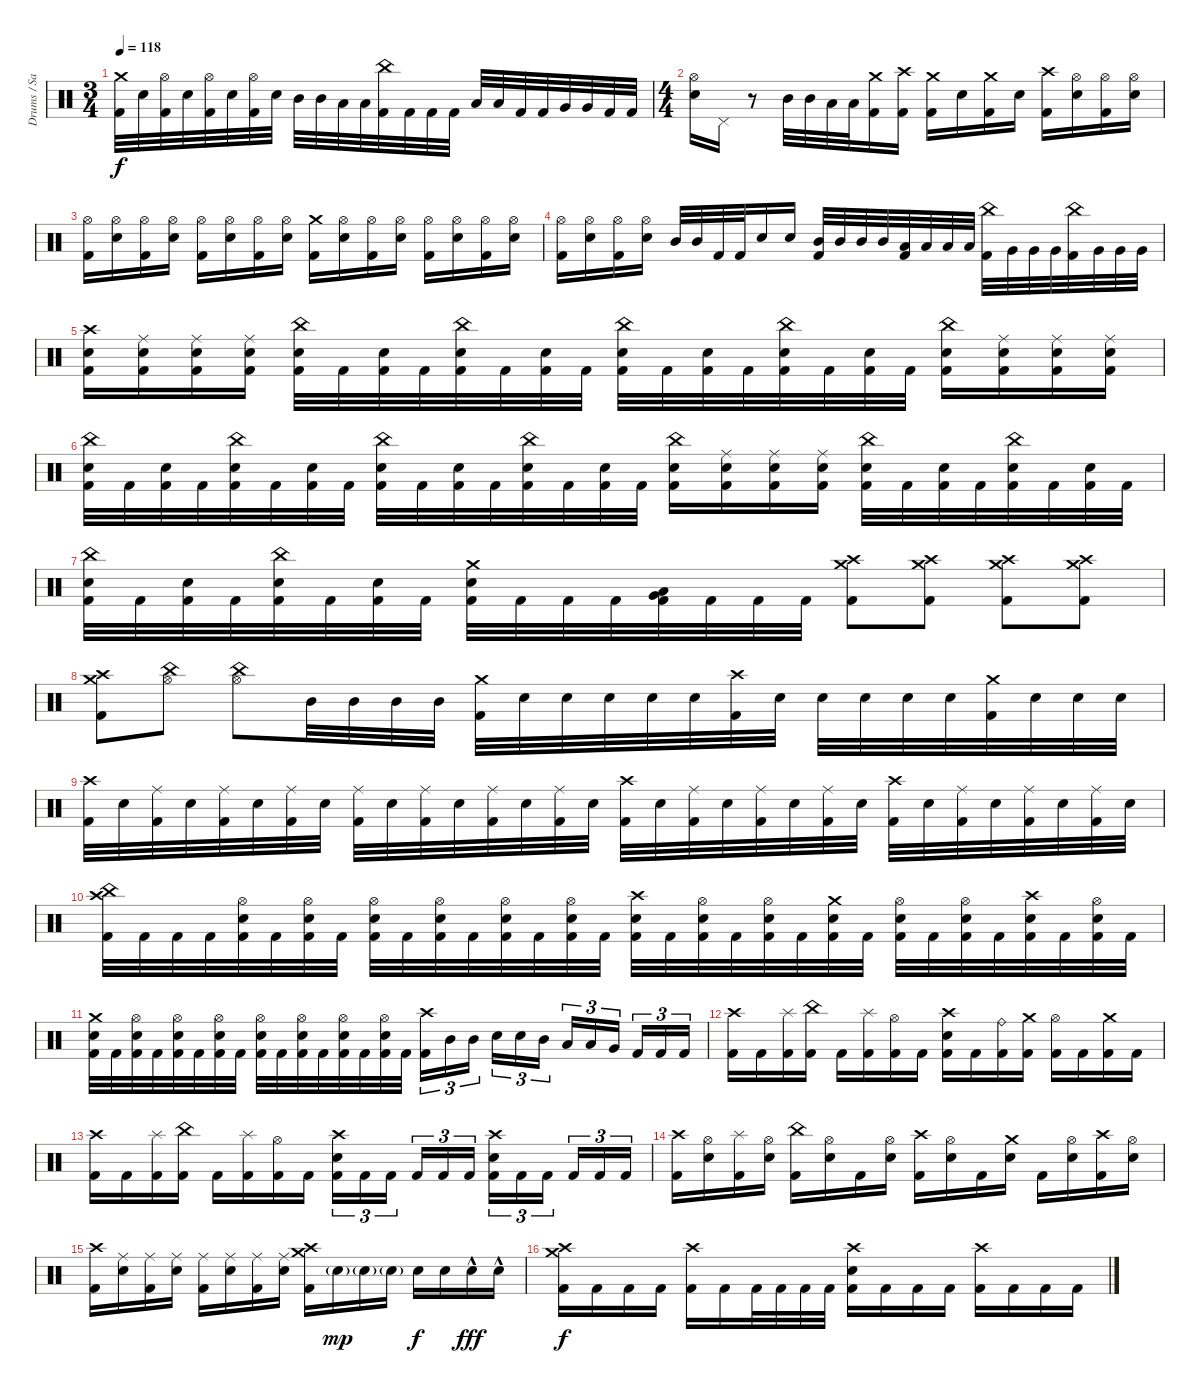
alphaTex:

\track ("Drums / Sasha" "Drums / Sa") {instrument percussion}
\staff {score}
\articulation defaults
\ts (3 4)
\tempo 118
\clef neutral
\ks c
("Crash medium (hit)" "Kick (hit) 2").32{dy f} "Electric Snare (hit)".32 ("Hi-Hat (open)" "Kick (hit) 2").32 "Electric Snare (hit)".32 ("Hi-Hat (open)" "Kick (hit) 2").32 "Electric Snare (hit)".32 ("Hi-Hat (open)" "Kick (hit) 2").32 "Electric Snare (hit)".32 "Mid Tom (hit)".32 "Mid Tom (hit)".32 "Low Tom (hit)".32 "Low Tom (hit)".32 ("China (hit)" "Kick (hit) 2").32 "Kick (hit) 2".32 "Kick (hit) 2".32 "Kick (hit) 2".32 "Low Tom (hit)".32 "Low Tom (hit)".32 "Kick (hit) 2".32 "Kick (hit) 2".32 "Very Low Tom (hit)".32 "Very Low Tom (hit)".32 "Kick (hit) 2".32 "Kick (hit) 2".32 |
\ts (4 4)
("Hi-Hat (open)" "Electric Snare (hit)").16 "Pedal Hi-Hat (hit)".16 r.8 "Mid Tom (hit)".32 "Mid Tom (hit)".32 "Low Tom (hit)".32 "Low Tom (hit)".32 ("Crash medium (hit)" "Kick (hit) 2").16 ("Crash high (hit)" "Kick (hit) 2").16 ("Crash medium (hit)" "Kick (hit) 2").16 "Electric Snare (hit)".16 ("Crash medium (hit)" "Kick (hit) 2").16 "Electric Snare (hit)".16 ("Crash high (hit)" "Kick (hit) 2").16 ("Hi-Hat (open)" "Electric Snare (hit)").16 ("Hi-Hat (open)" "Kick (hit) 2").16 ("Hi-Hat (open)" "Electric Snare (hit)").16 |
("Hi-Hat (open)" "Kick (hit) 2").16 ("Hi-Hat (open)" "Electric Snare (hit)").16 ("Hi-Hat (open)" "Kick (hit) 2").16 ("Hi-Hat (open)" "Electric Snare (hit)").16 ("Hi-Hat (open)" "Kick (hit) 2").16 ("Hi-Hat (open)" "Electric Snare (hit)").16 ("Hi-Hat (open)" "Kick (hit) 2").16 ("Hi-Hat (open)" "Electric Snare (hit)").16 ("Crash medium (hit)" "Kick (hit) 2").16 ("Hi-Hat (open)" "Electric Snare (hit)").16 ("Hi-Hat (open)" "Kick (hit) 2").16 ("Hi-Hat (open)" "Electric Snare (hit)").16 ("Hi-Hat (open)" "Kick (hit) 2").16 ("Hi-Hat (open)" "Electric Snare (hit)").16 ("Hi-Hat (open)" "Kick (hit) 2").16 ("Hi-Hat (open)" "Electric Snare (hit)").16 |
("Hi-Hat (open)" "Kick (hit) 2").16 ("Hi-Hat (open)" "Electric Snare (hit)").16 ("Hi-Hat (open)" "Kick (hit) 2").16 ("Hi-Hat (open)" "Electric Snare (hit)").16 "Mid Tom (hit)".32 "Mid Tom (hit)".32 "Kick (hit) 2".32 "Kick (hit) 2".32 "Electric Snare (hit)".16 "Electric Snare (hit)".16 ("Mid Tom (hit)" "Kick (hit) 2").32 "Mid Tom (hit)".32 "Mid Tom (hit)".32 "Mid Tom (hit)".32 ("Low Tom (hit)" "Kick (hit) 2").32 "Low Tom (hit)".32 "Low Tom (hit)".32 "Low Tom (hit)".32 ("China (hit)" "Kick (hit) 2").32 "Very Low Tom (hit)".32 "Very Low Tom (hit)".32 "Very Low Tom (hit)".32 ("China (hit)" "Kick (hit) 2").32 "Very Low Tom (hit)".32 "Very Low Tom (hit)".32 "Very Low Tom (hit)".32 |
("Crash high (hit)" "Electric Snare (hit)" "Kick (hit) 2").16 ("Ride (middle)" "Electric Snare (hit)" "Kick (hit) 2").16 ("Ride (middle)" "Electric Snare (hit)" "Kick (hit) 2").16 ("Ride (middle)" "Electric Snare (hit)" "Kick (hit) 2").16 ("China (hit)" "Electric Snare (hit)" "Kick (hit) 2").32 "Kick (hit) 2".32 ("Electric Snare (hit)" "Kick (hit) 2").32 "Kick (hit) 2".32 ("China (hit)" "Electric Snare (hit)" "Kick (hit) 2").32 "Kick (hit) 2".32 ("Electric Snare (hit)" "Kick (hit) 2").32 "Kick (hit) 2".32 ("China (hit)" "Electric Snare (hit)" "Kick (hit) 2").32 "Kick (hit) 2".32 ("Electric Snare (hit)" "Kick (hit) 2").32 "Kick (hit) 2".32 ("China (hit)" "Electric Snare (hit)" "Kick (hit) 2").32 "Kick (hit) 2".32 ("Electric Snare (hit)" "Kick (hit) 2").32 "Kick (hit) 2".32 ("China (hit)" "Electric Snare (hit)" "Kick (hit) 2").16 ("Ride (middle)" "Electric Snare (hit)" "Kick (hit) 2").16 ("Ride (middle)" "Electric Snare (hit)" "Kick (hit) 2").16 ("Ride (middle)" "Electric Snare (hit)" "Kick (hit) 2").16 |
("China (hit)" "Electric Snare (hit)" "Kick (hit) 2").32 "Kick (hit) 2".32 ("Electric Snare (hit)" "Kick (hit) 2").32 "Kick (hit) 2".32 ("China (hit)" "Electric Snare (hit)" "Kick (hit) 2").32 "Kick (hit) 2".32 ("Electric Snare (hit)" "Kick (hit) 2").32 "Kick (hit) 2".32 ("China (hit)" "Electric Snare (hit)" "Kick (hit) 2").32 "Kick (hit) 2".32 ("Electric Snare (hit)" "Kick (hit) 2").32 "Kick (hit) 2".32 ("China (hit)" "Electric Snare (hit)" "Kick (hit) 2").32 "Kick (hit) 2".32 ("Electric Snare (hit)" "Kick (hit) 2").32 "Kick (hit) 2".32 ("China (hit)" "Electric Snare (hit)" "Kick (hit) 2").16 ("Ride (middle)" "Electric Snare (hit)" "Kick (hit) 2").16 ("Ride (middle)" "Electric Snare (hit)" "Kick (hit) 2").16 ("Ride (middle)" "Electric Snare (hit)" "Kick (hit) 2").16 ("China (hit)" "Electric Snare (hit)" "Kick (hit) 2").32 "Kick (hit) 2".32 ("Electric Snare (hit)" "Kick (hit) 2").32 "Kick (hit) 2".32 ("China (hit)" "Electric Snare (hit)" "Kick (hit) 2").32 "Kick (hit) 2".32 ("Electric Snare (hit)" "Kick (hit) 2").32 "Kick (hit) 2".32 |
("China (hit)" "Electric Snare (hit)" "Kick (hit) 2").32 "Kick (hit) 2".32 ("Electric Snare (hit)" "Kick (hit) 2").32 "Kick (hit) 2".32 ("China (hit)" "Electric Snare (hit)" "Kick (hit) 2").32 "Kick (hit) 2".32 ("Electric Snare (hit)" "Kick (hit) 2").32 "Kick (hit) 2".32 ("Crash medium (hit)" "Electric Snare (hit)" "Kick (hit) 2").32 "Kick (hit) 2".32 "Kick (hit) 2".32 "Kick (hit) 2".32 ("Low Tom (hit)" "Very Low Tom (hit)" "Kick (hit) 2").32 "Kick (hit) 2".32 "Kick (hit) 2".32 "Kick (hit) 2".32 ("Crash high (hit)" "Crash medium (hit)" "Kick (hit) 2").8 ("Crash high (hit)" "Crash medium (hit)" "Kick (hit) 2").8 ("Crash high (hit)" "Crash medium (hit)" "Kick (hit) 2").8 ("Crash high (hit)" "Crash medium (hit)" "Kick (hit) 2").8 |
("Crash high (hit)" "Crash medium (hit)" "Kick (hit) 2").8 ("China (hit)" "Hi-Hat (open)").8 ("China (hit)" "Hi-Hat (open)").8 "Mid Tom (hit)".32 "Mid Tom (hit)".32 "Mid Tom (hit)".32 "Mid Tom (hit)".32 ("Crash medium (hit)" "Kick (hit) 2").32 "Electric Snare (hit)".32 "Electric Snare (hit)".32 "Electric Snare (hit)".32 "Electric Snare (hit)".32 "Electric Snare (hit)".32 ("Crash high (hit)" "Kick (hit) 2").32 "Electric Snare (hit)".32 "Electric Snare (hit)".32 "Electric Snare (hit)".32 "Electric Snare (hit)".32 "Electric Snare (hit)".32 ("Crash medium (hit)" "Kick (hit) 2").32 "Electric Snare (hit)".32 "Electric Snare (hit)".32 "Electric Snare (hit)".32 |
("Crash high (hit)" "Kick (hit) 2").32 "Electric Snare (hit)".32 ("Ride (middle)" "Kick (hit) 2").32 "Electric Snare (hit)".32 ("Ride (middle)" "Kick (hit) 2").32 "Electric Snare (hit)".32 ("Ride (middle)" "Kick (hit) 2").32 "Electric Snare (hit)".32 ("Ride (middle)" "Kick (hit) 2").32 "Electric Snare (hit)".32 ("Ride (middle)" "Kick (hit) 2").32 "Electric Snare (hit)".32 ("Ride (middle)" "Kick (hit) 2").32 "Electric Snare (hit)".32 ("Ride (middle)" "Kick (hit) 2").32 "Electric Snare (hit)".32 ("Crash high (hit)" "Kick (hit) 2").32 "Electric Snare (hit)".32 ("Ride (middle)" "Kick (hit) 2").32 "Electric Snare (hit)".32 ("Ride (middle)" "Kick (hit) 2").32 "Electric Snare (hit)".32 ("Ride (middle)" "Kick (hit) 2").32 "Electric Snare (hit)".32 ("Crash high (hit)" "Kick (hit) 2").32 "Electric Snare (hit)".32 ("Ride (middle)" "Kick (hit) 2").32 "Electric Snare (hit)".32 ("Ride (middle)" "Kick (hit) 2").32 "Electric Snare (hit)".32 ("Ride (middle)" "Kick (hit) 2").32 "Electric Snare (hit)".32 |
("Crash high (hit)" "China (hit)" "Kick (hit) 2").32 "Kick (hit) 2".32 "Kick (hit) 2".32 "Kick (hit) 2".32 ("Hi-Hat (open)" "Electric Snare (hit)" "Kick (hit) 2").32 "Kick (hit) 2".32 ("Hi-Hat (open)" "Electric Snare (hit)" "Kick (hit) 2").32 "Kick (hit) 2".32 ("Hi-Hat (open)" "Electric Snare (hit)" "Kick (hit) 2").32 "Kick (hit) 2".32 ("Hi-Hat (open)" "Electric Snare (hit)" "Kick (hit) 2").32 "Kick (hit) 2".32 ("Hi-Hat (open)" "Electric Snare (hit)" "Kick (hit) 2").32 "Kick (hit) 2".32 ("Hi-Hat (open)" "Electric Snare (hit)" "Kick (hit) 2").32 "Kick (hit) 2".32 ("Crash high (hit)" "Electric Snare (hit)" "Kick (hit) 2").32 "Kick (hit) 2".32 ("Hi-Hat (open)" "Electric Snare (hit)" "Kick (hit) 2").32 "Kick (hit) 2".32 ("Hi-Hat (open)" "Electric Snare (hit)" "Kick (hit) 2").32 "Kick (hit) 2".32 ("Crash medium (hit)" "Electric Snare (hit)" "Kick (hit) 2").32 "Kick (hit) 2".32 ("Hi-Hat (open)" "Electric Snare (hit)" "Kick (hit) 2").32 "Kick (hit) 2".32 ("Hi-Hat (open)" "Electric Snare (hit)" "Kick (hit) 2").32 "Kick (hit) 2".32 ("Crash high (hit)" "Electric Snare (hit)" "Kick (hit) 2").32 "Kick (hit) 2".32 ("Hi-Hat (open)" "Electric Snare (hit)" "Kick (hit) 2").32 "Kick (hit) 2".32 |
("Crash medium (hit)" "Electric Snare (hit)" "Kick (hit) 2").32 "Kick (hit) 2".32 ("Hi-Hat (open)" "Electric Snare (hit)" "Kick (hit) 2").32 "Kick (hit) 2".32 ("Hi-Hat (open)" "Electric Snare (hit)" "Kick (hit) 2").32 "Kick (hit) 2".32 ("Hi-Hat (open)" "Electric Snare (hit)" "Kick (hit) 2").32 "Kick (hit) 2".32 ("Hi-Hat (open)" "Electric Snare (hit)" "Kick (hit) 2").32 "Kick (hit) 2".32 ("Hi-Hat (open)" "Electric Snare (hit)" "Kick (hit) 2").32 "Kick (hit) 2".32 ("Hi-Hat (open)" "Electric Snare (hit)" "Kick (hit) 2").32 "Kick (hit) 2".32 ("Hi-Hat (open)" "Electric Snare (hit)" "Kick (hit) 2").32 "Kick (hit) 2".32 ("Crash high (hit)" "Kick (hit) 2").16{tu (3 2)} "Mid Tom (hit)".16{tu (3 2)} "Mid Tom (hit)".16{tu (3 2) beam splitsecondary} "Electric Snare (hit)".16{tu (3 2)} "Electric Snare (hit)".16{tu (3 2)} "Mid Tom (hit)".16{tu (3 2)} "Low Tom (hit)".16{tu (3 2)} "Low Tom (hit)".16{tu (3 2)} "Very Low Tom (hit)".16{tu (3 2) beam splitsecondary} "Kick (hit) 2".16{tu (3 2)} "Kick (hit) 2".16{tu (3 2)} "Kick (hit) 2".16{tu (3 2)} |
("Crash high (hit)" "Kick (hit) 2").16 "Kick (hit) 2".16 ("Splash (hit)" "Kick (hit) 2").16 ("China (hit)" "Kick (hit) 2").16 "Kick (hit) 2".16 ("Splash (hit)" "Kick (hit) 2").16 ("Hi-Hat (open)" "Kick (hit) 2").16 "Kick (hit) 2".16 ("Crash high (hit)" "Electric Snare (hit)" "Kick (hit) 2").16 "Kick (hit) 2".16 ("Ride (bell)" "Kick (hit) 2").16 ("Crash medium (hit)" "Kick (hit) 2").16 ("Hi-Hat (open)" "Kick (hit) 2").16 "Kick (hit) 2".16 ("Crash medium (hit)" "Kick (hit) 2").16 "Kick (hit) 2".16 |
("Crash high (hit)" "Kick (hit) 2").16 "Kick (hit) 2".16 ("Splash (hit)" "Kick (hit) 2").16 ("China (hit)" "Kick (hit) 2").16 "Kick (hit) 2".16 ("Splash (hit)" "Kick (hit) 2").16 ("Hi-Hat (open)" "Kick (hit) 2").16 "Kick (hit) 2".16 ("Crash high (hit)" "Electric Snare (hit)" "Kick (hit) 2").16{tu (3 2)} "Kick (hit) 2".16{tu (3 2)} "Kick (hit) 2".16{tu (3 2) beam splitsecondary} "Kick (hit) 2".16{tu (3 2)} "Kick (hit) 2".16{tu (3 2)} "Kick (hit) 2".16{tu (3 2)} ("Crash high (hit)" "Electric Snare (hit)" "Kick (hit) 2").16{tu (3 2)} "Kick (hit) 2".16{tu (3 2)} "Kick (hit) 2".16{tu (3 2) beam splitsecondary} "Kick (hit) 2".16{tu (3 2)} "Kick (hit) 2".16{tu (3 2)} "Kick (hit) 2".16{tu (3 2)} |
("Crash high (hit)" "Kick (hit) 2").16 ("Hi-Hat (open)" "Electric Snare (hit)").16 ("Splash (hit)" "Kick (hit) 2").16 ("Hi-Hat (open)" "Electric Snare (hit)").16 ("China (hit)" "Kick (hit) 2").16 ("Hi-Hat (open)" "Electric Snare (hit)").16 "Kick (hit) 2".16 ("Hi-Hat (open)" "Electric Snare (hit)").16 ("Crash high (hit)" "Kick (hit) 2").16 ("Hi-Hat (open)" "Electric Snare (hit)").16 "Kick (hit) 2".16 ("Crash medium (hit)" "Electric Snare (hit)").16 "Kick (hit) 2".16 ("Hi-Hat (open)" "Electric Snare (hit)").16 ("Crash high (hit)" "Kick (hit) 2").16 ("Hi-Hat (open)" "Electric Snare (hit)").16 |
("Crash high (hit)" "Kick (hit) 2").16 ("Ride (middle)" "Electric Snare (hit)").16 ("Ride (middle)" "Kick (hit) 2").16 ("Ride (middle)" "Electric Snare (hit)").16 ("Ride (middle)" "Kick (hit) 2").16 ("Ride (middle)" "Electric Snare (hit)").16 ("Ride (middle)" "Kick (hit) 2").16 ("Ride (middle)" "Electric Snare (hit)").16 ("Crash high (hit)" "Crash medium (hit)" "Kick (hit) 2").16 "Electric Snare (hit)"{g}.16{dy mp} "Electric Snare (hit)"{g}.16 "Electric Snare (hit)"{g}.16 "Electric Snare (hit)".16{dy f} "Electric Snare (hit)".16 "Electric Snare (hit)"{hac}.16{dy fff} "Electric Snare (hit)"{hac}.16 |
("Crash medium (hit)" "Crash high (hit)" "Kick (hit) 2").16{dy f} "Kick (hit) 2".16 "Kick (hit) 2".16 "Kick (hit) 2".16 ("Crash high (hit)" "Kick (hit) 2").16 "Kick (hit) 2".16 "Kick (hit) 2".32 "Kick (hit) 2".32 "Kick (hit) 2".32 "Kick (hit) 2".32 ("Crash high (hit)" "Electric Snare (hit)" "Kick (hit) 2").16 "Kick (hit) 2".16 "Kick (hit) 2".16 "Kick (hit) 2".16 ("Crash high (hit)" "Kick (hit) 2").16 "Kick (hit) 2".16 "Kick (hit) 2".16 "Kick (hit) 2".16
